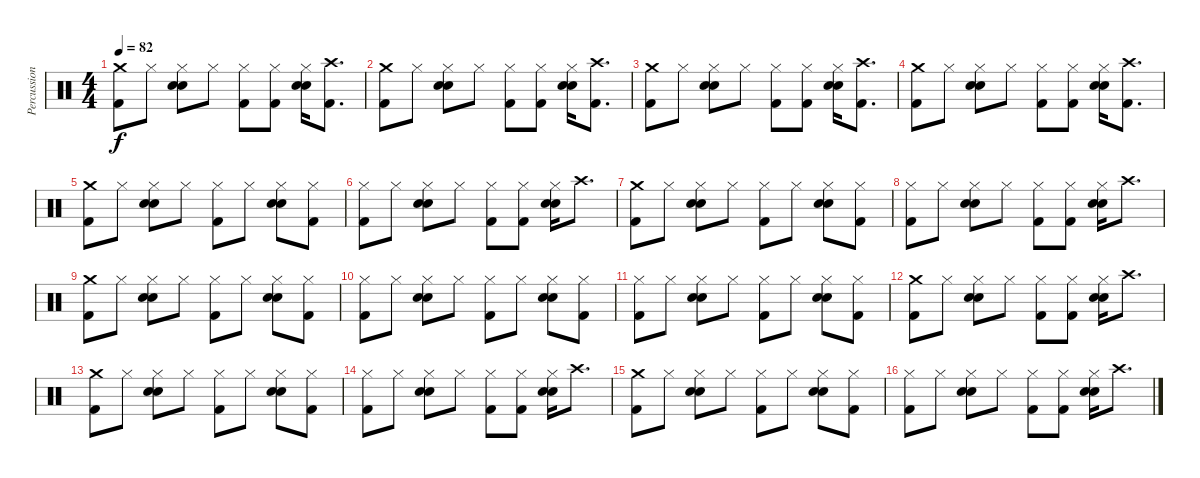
\track ("Percussion" "Percussion") {instrument percussion}
\staff {score}
\articulation defaults
\ts (4 4)
\tempo 82
\clef neutral
\ks c
("Crash medium (hit)" "Kick (hit) 2").8{dy f} "Hi-Hat (closed)".8 ("Hi-Hat (closed)" "Snare (hit) 2" "Electric Snare (hit)").8 "Hi-Hat (closed)".8 ("Hi-Hat (closed)" "Kick (hit) 2").8 ("Hi-Hat (closed)" "Kick (hit) 2").8 ("Hi-Hat (closed)" "Snare (hit) 2" "Electric Snare (hit)").16 ("Crash high (hit)" "Kick (hit) 2").8{d} |
("Crash medium (hit)" "Kick (hit) 2").8 "Hi-Hat (closed)".8 ("Hi-Hat (closed)" "Snare (hit) 2" "Electric Snare (hit)").8 "Hi-Hat (closed)".8 ("Hi-Hat (closed)" "Kick (hit) 2").8 ("Hi-Hat (closed)" "Kick (hit) 2").8 ("Hi-Hat (closed)" "Snare (hit) 2" "Electric Snare (hit)").16 ("Crash high (hit)" "Kick (hit) 2").8{d} |
("Crash medium (hit)" "Kick (hit) 2").8 "Hi-Hat (closed)".8 ("Hi-Hat (closed)" "Snare (hit) 2" "Electric Snare (hit)").8 "Hi-Hat (closed)".8 ("Hi-Hat (closed)" "Kick (hit) 2").8 ("Hi-Hat (closed)" "Kick (hit) 2").8 ("Hi-Hat (closed)" "Snare (hit) 2" "Electric Snare (hit)").16 ("Crash high (hit)" "Kick (hit) 2").8{d} |
("Crash medium (hit)" "Kick (hit) 2").8 "Hi-Hat (closed)".8 ("Hi-Hat (closed)" "Snare (hit) 2" "Electric Snare (hit)").8 "Hi-Hat (closed)".8 ("Hi-Hat (closed)" "Kick (hit) 2").8 ("Hi-Hat (closed)" "Kick (hit) 2").8 ("Hi-Hat (closed)" "Snare (hit) 2" "Electric Snare (hit)").16 ("Crash high (hit)" "Kick (hit) 2").8{d} |
("Crash medium (hit)" "Kick (hit) 2").8 "Hi-Hat (closed)".8 ("Hi-Hat (closed)" "Snare (hit) 2" "Electric Snare (hit)").8 "Hi-Hat (closed)".8 ("Hi-Hat (closed)" "Kick (hit) 2").8 "Hi-Hat (closed)".8 ("Hi-Hat (closed)" "Snare (hit) 2" "Electric Snare (hit)").8 ("Hi-Hat (closed)" "Kick (hit) 2").8 |
("Hi-Hat (closed)" "Kick (hit) 2").8 "Hi-Hat (closed)".8 ("Hi-Hat (closed)" "Snare (hit) 2" "Electric Snare (hit)").8 "Hi-Hat (closed)".8 ("Hi-Hat (closed)" "Kick (hit) 2").8 ("Hi-Hat (closed)" "Kick (hit) 2").8 ("Hi-Hat (closed)" "Snare (hit) 2" "Electric Snare (hit)").16 "Crash high (hit)".8{d} |
("Crash medium (hit)" "Kick (hit) 2").8 "Hi-Hat (closed)".8 ("Hi-Hat (closed)" "Snare (hit) 2" "Electric Snare (hit)").8 "Hi-Hat (closed)".8 ("Hi-Hat (closed)" "Kick (hit) 2").8 "Hi-Hat (closed)".8 ("Hi-Hat (closed)" "Snare (hit) 2" "Electric Snare (hit)").8 ("Hi-Hat (closed)" "Kick (hit) 2").8 |
("Hi-Hat (closed)" "Kick (hit) 2").8 "Hi-Hat (closed)".8 ("Hi-Hat (closed)" "Snare (hit) 2" "Electric Snare (hit)").8 "Hi-Hat (closed)".8 ("Hi-Hat (closed)" "Kick (hit) 2").8 ("Hi-Hat (closed)" "Kick (hit) 2").8 ("Hi-Hat (closed)" "Snare (hit) 2" "Electric Snare (hit)").16 "Crash high (hit)".8{d} |
("Crash medium (hit)" "Kick (hit) 2").8 "Hi-Hat (closed)".8 ("Hi-Hat (closed)" "Snare (hit) 2" "Electric Snare (hit)").8 "Hi-Hat (closed)".8 ("Hi-Hat (closed)" "Kick (hit) 2").8 "Hi-Hat (closed)".8 ("Hi-Hat (closed)" "Snare (hit) 2" "Electric Snare (hit)").8 ("Hi-Hat (closed)" "Kick (hit) 2").8 |
("Hi-Hat (closed)" "Kick (hit) 2").8 "Hi-Hat (closed)".8 ("Hi-Hat (closed)" "Snare (hit) 2" "Electric Snare (hit)").8 "Hi-Hat (closed)".8 ("Hi-Hat (closed)" "Kick (hit) 2").8 "Hi-Hat (closed)".8 ("Hi-Hat (closed)" "Snare (hit) 2" "Electric Snare (hit)").8 ("Hi-Hat (closed)" "Kick (hit) 2").8 |
("Hi-Hat (closed)" "Kick (hit) 2").8 "Hi-Hat (closed)".8 ("Hi-Hat (closed)" "Snare (hit) 2" "Electric Snare (hit)").8 "Hi-Hat (closed)".8 ("Hi-Hat (closed)" "Kick (hit) 2").8 "Hi-Hat (closed)".8 ("Hi-Hat (closed)" "Snare (hit) 2" "Electric Snare (hit)").8 ("Hi-Hat (closed)" "Kick (hit) 2").8 |
("Crash medium (hit)" "Kick (hit) 2").8 "Hi-Hat (closed)".8 ("Hi-Hat (closed)" "Snare (hit) 2" "Electric Snare (hit)").8 "Hi-Hat (closed)".8 ("Hi-Hat (closed)" "Kick (hit) 2").8 ("Hi-Hat (closed)" "Kick (hit) 2").8 ("Hi-Hat (closed)" "Snare (hit) 2" "Electric Snare (hit)").16 "Crash high (hit)".8{d} |
("Crash medium (hit)" "Kick (hit) 2").8 "Hi-Hat (closed)".8 ("Hi-Hat (closed)" "Snare (hit) 2" "Electric Snare (hit)").8 "Hi-Hat (closed)".8 ("Hi-Hat (closed)" "Kick (hit) 2").8 "Hi-Hat (closed)".8 ("Hi-Hat (closed)" "Snare (hit) 2" "Electric Snare (hit)").8 ("Hi-Hat (closed)" "Kick (hit) 2").8 |
("Hi-Hat (closed)" "Kick (hit) 2").8 "Hi-Hat (closed)".8 ("Hi-Hat (closed)" "Snare (hit) 2" "Electric Snare (hit)").8 "Hi-Hat (closed)".8 ("Hi-Hat (closed)" "Kick (hit) 2").8 ("Hi-Hat (closed)" "Kick (hit) 2").8 ("Hi-Hat (closed)" "Snare (hit) 2" "Electric Snare (hit)").16 "Crash high (hit)".8{d} |
("Crash medium (hit)" "Kick (hit) 2").8 "Hi-Hat (closed)".8 ("Hi-Hat (closed)" "Snare (hit) 2" "Electric Snare (hit)").8 "Hi-Hat (closed)".8 ("Hi-Hat (closed)" "Kick (hit) 2").8 "Hi-Hat (closed)".8 ("Hi-Hat (closed)" "Snare (hit) 2" "Electric Snare (hit)").8 ("Hi-Hat (closed)" "Kick (hit) 2").8 |
("Hi-Hat (closed)" "Kick (hit) 2").8 "Hi-Hat (closed)".8 ("Hi-Hat (closed)" "Snare (hit) 2" "Electric Snare (hit)").8 "Hi-Hat (closed)".8 ("Hi-Hat (closed)" "Kick (hit) 2").8 ("Hi-Hat (closed)" "Kick (hit) 2").8 ("Hi-Hat (closed)" "Snare (hit) 2" "Electric Snare (hit)").16 "Crash high (hit)".8{d}
